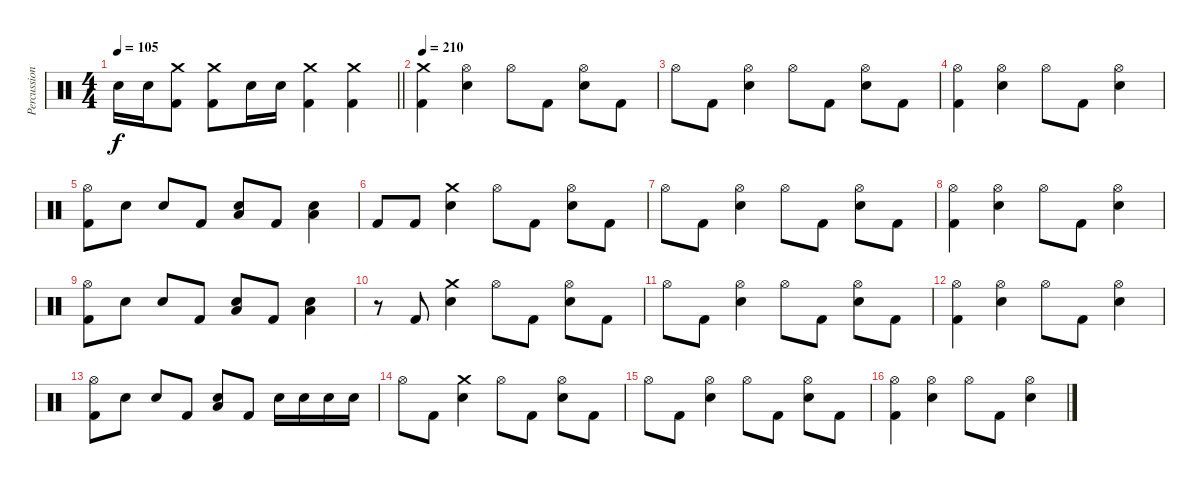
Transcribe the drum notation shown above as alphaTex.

\track ("Percussion" "Percussion") {instrument percussion}
\staff {score}
\articulation defaults
\ts (4 4)
\tempo 105
\clef neutral
\barLineRight lightlight
\ks c "Electric Snare (hit)".16{dy f} "Electric Snare (hit)".16
("Crash medium (hit)" "Kick (hit) 2").8 ("Crash medium (hit)" "Kick (hit) 2").8 "Electric Snare (hit)".16 "Electric Snare (hit)".16 ("Crash medium (hit)" "Kick (hit) 2").4 ("Crash medium (hit)" "Kick (hit) 2").4 |
\section ("" "")
\tempo 210
("Crash medium (hit)" "Kick (hit) 2").4 ("Hi-Hat (open)" "Electric Snare (hit)").4 "Hi-Hat (open)".8 "Kick (hit) 2".8 ("Hi-Hat (open)" "Electric Snare (hit)").8 "Kick (hit) 2".8 |
"Hi-Hat (open)".8 "Kick (hit) 2".8 ("Hi-Hat (open)" "Electric Snare (hit)").4 "Hi-Hat (open)".8 "Kick (hit) 2".8 ("Hi-Hat (open)" "Electric Snare (hit)").8 "Kick (hit) 2".8 |
("Hi-Hat (open)" "Kick (hit) 2").4 ("Hi-Hat (open)" "Electric Snare (hit)").4 "Hi-Hat (open)".8 "Kick (hit) 2".8 ("Hi-Hat (open)" "Electric Snare (hit)").4 |
("Hi-Hat (open)" "Kick (hit) 2").8 "Electric Snare (hit)".8 "Electric Snare (hit)".8 "Kick (hit) 2".8 ("Low Floor Tom (hit)" "Electric Snare (hit)").8 "Kick (hit) 2".8 ("Low Floor Tom (hit)" "Electric Snare (hit)").4 |
"Kick (hit) 2".8 "Kick (hit) 2".8 ("Crash medium (hit)" "Electric Snare (hit)").4 "Hi-Hat (open)".8 "Kick (hit) 2".8 ("Hi-Hat (open)" "Electric Snare (hit)").8 "Kick (hit) 2".8 |
"Hi-Hat (open)".8 "Kick (hit) 2".8 ("Hi-Hat (open)" "Electric Snare (hit)").4 "Hi-Hat (open)".8 "Kick (hit) 2".8 ("Hi-Hat (open)" "Electric Snare (hit)").8 "Kick (hit) 2".8 |
("Hi-Hat (open)" "Kick (hit) 2").4 ("Hi-Hat (open)" "Electric Snare (hit)").4 "Hi-Hat (open)".8 "Kick (hit) 2".8 ("Hi-Hat (open)" "Electric Snare (hit)").4 |
("Hi-Hat (open)" "Kick (hit) 2").8 "Electric Snare (hit)".8 "Electric Snare (hit)".8 "Kick (hit) 2".8 ("Low Floor Tom (hit)" "Electric Snare (hit)").8 "Kick (hit) 2".8 ("Low Floor Tom (hit)" "Electric Snare (hit)").4 |
r.8 "Kick (hit) 2".8 ("Crash medium (hit)" "Electric Snare (hit)").4 "Hi-Hat (open)".8 "Kick (hit) 2".8 ("Hi-Hat (open)" "Electric Snare (hit)").8 "Kick (hit) 2".8 |
"Hi-Hat (open)".8 "Kick (hit) 2".8 ("Hi-Hat (open)" "Electric Snare (hit)").4 "Hi-Hat (open)".8 "Kick (hit) 2".8 ("Hi-Hat (open)" "Electric Snare (hit)").8 "Kick (hit) 2".8 |
("Hi-Hat (open)" "Kick (hit) 2").4 ("Hi-Hat (open)" "Electric Snare (hit)").4 "Hi-Hat (open)".8 "Kick (hit) 2".8 ("Hi-Hat (open)" "Electric Snare (hit)").4 |
("Hi-Hat (open)" "Kick (hit) 2").8 "Electric Snare (hit)".8 "Electric Snare (hit)".8 "Kick (hit) 2".8 ("Low Floor Tom (hit)" "Electric Snare (hit)").8 "Kick (hit) 2".8 "Electric Snare (hit)".16 "Electric Snare (hit)".16 "Electric Snare (hit)".16 "Electric Snare (hit)".16 |
"Hi-Hat (open)".8 "Kick (hit) 2".8 ("Crash medium (hit)" "Electric Snare (hit)").4 "Hi-Hat (open)".8 "Kick (hit) 2".8 ("Hi-Hat (open)" "Electric Snare (hit)").8 "Kick (hit) 2".8 |
"Hi-Hat (open)".8 "Kick (hit) 2".8 ("Hi-Hat (open)" "Electric Snare (hit)").4 "Hi-Hat (open)".8 "Kick (hit) 2".8 ("Hi-Hat (open)" "Electric Snare (hit)").8 "Kick (hit) 2".8 |
("Hi-Hat (open)" "Kick (hit) 2").4 ("Hi-Hat (open)" "Electric Snare (hit)").4 "Hi-Hat (open)".8 "Kick (hit) 2".8 ("Hi-Hat (open)" "Electric Snare (hit)").4
